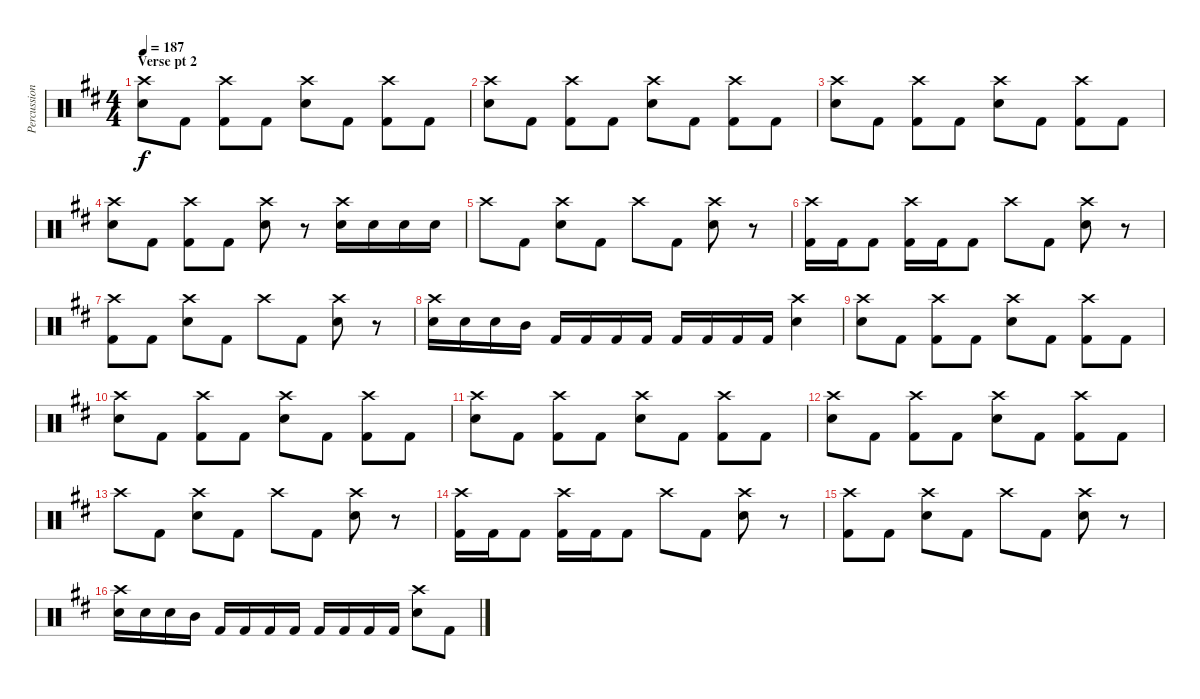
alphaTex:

\track ("Percussion" "Percussion") {instrument percussion}
\staff {score}
\articulation defaults
\ts (4 4)
\section ("" "Verse pt 2")
\tempo 187
\clef neutral
\ks d
("Crash high (hit)" "Snare (hit) 2").8{dy f} "Kick (hit) 2".8 ("Crash high (hit)" "Kick (hit) 2").8 "Kick (hit) 2".8 ("Crash high (hit)" "Snare (hit) 2").8 "Kick (hit) 2".8 ("Crash high (hit)" "Kick (hit) 2").8 "Kick (hit) 2".8 |
("Crash high (hit)" "Snare (hit) 2").8 "Kick (hit) 2".8 ("Crash high (hit)" "Kick (hit) 2").8 "Kick (hit) 2".8 ("Crash high (hit)" "Snare (hit) 2").8 "Kick (hit) 2".8 ("Crash high (hit)" "Kick (hit) 2").8 "Kick (hit) 2".8 |
("Crash high (hit)" "Snare (hit) 2").8 "Kick (hit) 2".8 ("Crash high (hit)" "Kick (hit) 2").8 "Kick (hit) 2".8 ("Crash high (hit)" "Snare (hit) 2").8 "Kick (hit) 2".8 ("Crash high (hit)" "Kick (hit) 2").8 "Kick (hit) 2".8 |
("Crash high (hit)" "Snare (hit) 2").8 "Kick (hit) 2".8 ("Crash high (hit)" "Kick (hit) 2").8 "Kick (hit) 2".8 ("Crash high (hit)" "Snare (hit) 2").8 r.8 ("Crash high (hit)" "Snare (hit) 2").16 "Snare (hit) 2".16 "Snare (hit) 2".16 "Snare (hit) 2".16 |
"Crash high (hit)".8 "Kick (hit) 2".8 ("Crash high (hit)" "Snare (hit) 2").8 "Kick (hit) 2".8 "Crash high (hit)".8 "Kick (hit) 2".8 ("Crash high (hit)" "Snare (hit) 2").8 r.8 |
("Crash high (hit)" "Kick (hit) 2").16 "Kick (hit) 2".16 "Kick (hit) 2".8 ("Crash high (hit)" "Kick (hit) 2").16 "Kick (hit) 2".16 "Kick (hit) 2".8 "Crash high (hit)".8 "Kick (hit) 2".8 ("Crash high (hit)" "Snare (hit) 2").8 r.8 |
("Crash high (hit)" "Kick (hit) 2").8 "Kick (hit) 2".8 ("Crash high (hit)" "Snare (hit) 2").8 "Kick (hit) 2".8 "Crash high (hit)".8 "Kick (hit) 2".8 ("Crash high (hit)" "Snare (hit) 2").8 r.8 |
("Crash high (hit)" "Snare (hit) 2").16 "Snare (hit) 2".16 "Snare (hit) 2".16 "Mid Tom (hit)".16 "Kick (hit) 2".16 "Kick (hit) 2".16 "Kick (hit) 2".16 "Kick (hit) 2".16 "Kick (hit) 2".16 "Kick (hit) 2".16 "Kick (hit) 2".16 "Kick (hit) 2".16 ("Crash high (hit)" "Snare (hit) 2").4 |
("Crash high (hit)" "Snare (hit) 2").8 "Kick (hit) 2".8 ("Crash high (hit)" "Kick (hit) 2").8 "Kick (hit) 2".8 ("Crash high (hit)" "Snare (hit) 2").8 "Kick (hit) 2".8 ("Crash high (hit)" "Kick (hit) 2").8 "Kick (hit) 2".8 |
("Crash high (hit)" "Snare (hit) 2").8 "Kick (hit) 2".8 ("Crash high (hit)" "Kick (hit) 2").8 "Kick (hit) 2".8 ("Crash high (hit)" "Snare (hit) 2").8 "Kick (hit) 2".8 ("Crash high (hit)" "Kick (hit) 2").8 "Kick (hit) 2".8 |
("Crash high (hit)" "Snare (hit) 2").8 "Kick (hit) 2".8 ("Crash high (hit)" "Kick (hit) 2").8 "Kick (hit) 2".8 ("Crash high (hit)" "Snare (hit) 2").8 "Kick (hit) 2".8 ("Crash high (hit)" "Kick (hit) 2").8 "Kick (hit) 2".8 |
("Crash high (hit)" "Snare (hit) 2").8 "Kick (hit) 2".8 ("Crash high (hit)" "Kick (hit) 2").8 "Kick (hit) 2".8 ("Crash high (hit)" "Snare (hit) 2").8 "Kick (hit) 2".8 ("Crash high (hit)" "Kick (hit) 2").8 "Kick (hit) 2".8 |
"Crash high (hit)".8 "Kick (hit) 2".8 ("Crash high (hit)" "Snare (hit) 2").8 "Kick (hit) 2".8 "Crash high (hit)".8 "Kick (hit) 2".8 ("Crash high (hit)" "Snare (hit) 2").8 r.8 |
("Crash high (hit)" "Kick (hit) 2").16 "Kick (hit) 2".16 "Kick (hit) 2".8 ("Crash high (hit)" "Kick (hit) 2").16 "Kick (hit) 2".16 "Kick (hit) 2".8 "Crash high (hit)".8 "Kick (hit) 2".8 ("Crash high (hit)" "Snare (hit) 2").8 r.8 |
("Crash high (hit)" "Kick (hit) 2").8 "Kick (hit) 2".8 ("Crash high (hit)" "Snare (hit) 2").8 "Kick (hit) 2".8 "Crash high (hit)".8 "Kick (hit) 2".8 ("Crash high (hit)" "Snare (hit) 2").8 r.8 |
("Crash high (hit)" "Snare (hit) 2").16 "Snare (hit) 2".16 "Snare (hit) 2".16 "Mid Tom (hit)".16 "Kick (hit) 2".16 "Kick (hit) 2".16 "Kick (hit) 2".16 "Kick (hit) 2".16 "Kick (hit) 2".16 "Kick (hit) 2".16 "Kick (hit) 2".16 "Kick (hit) 2".16 ("Crash high (hit)" "Snare (hit) 2").8 "Kick (hit) 2".8
